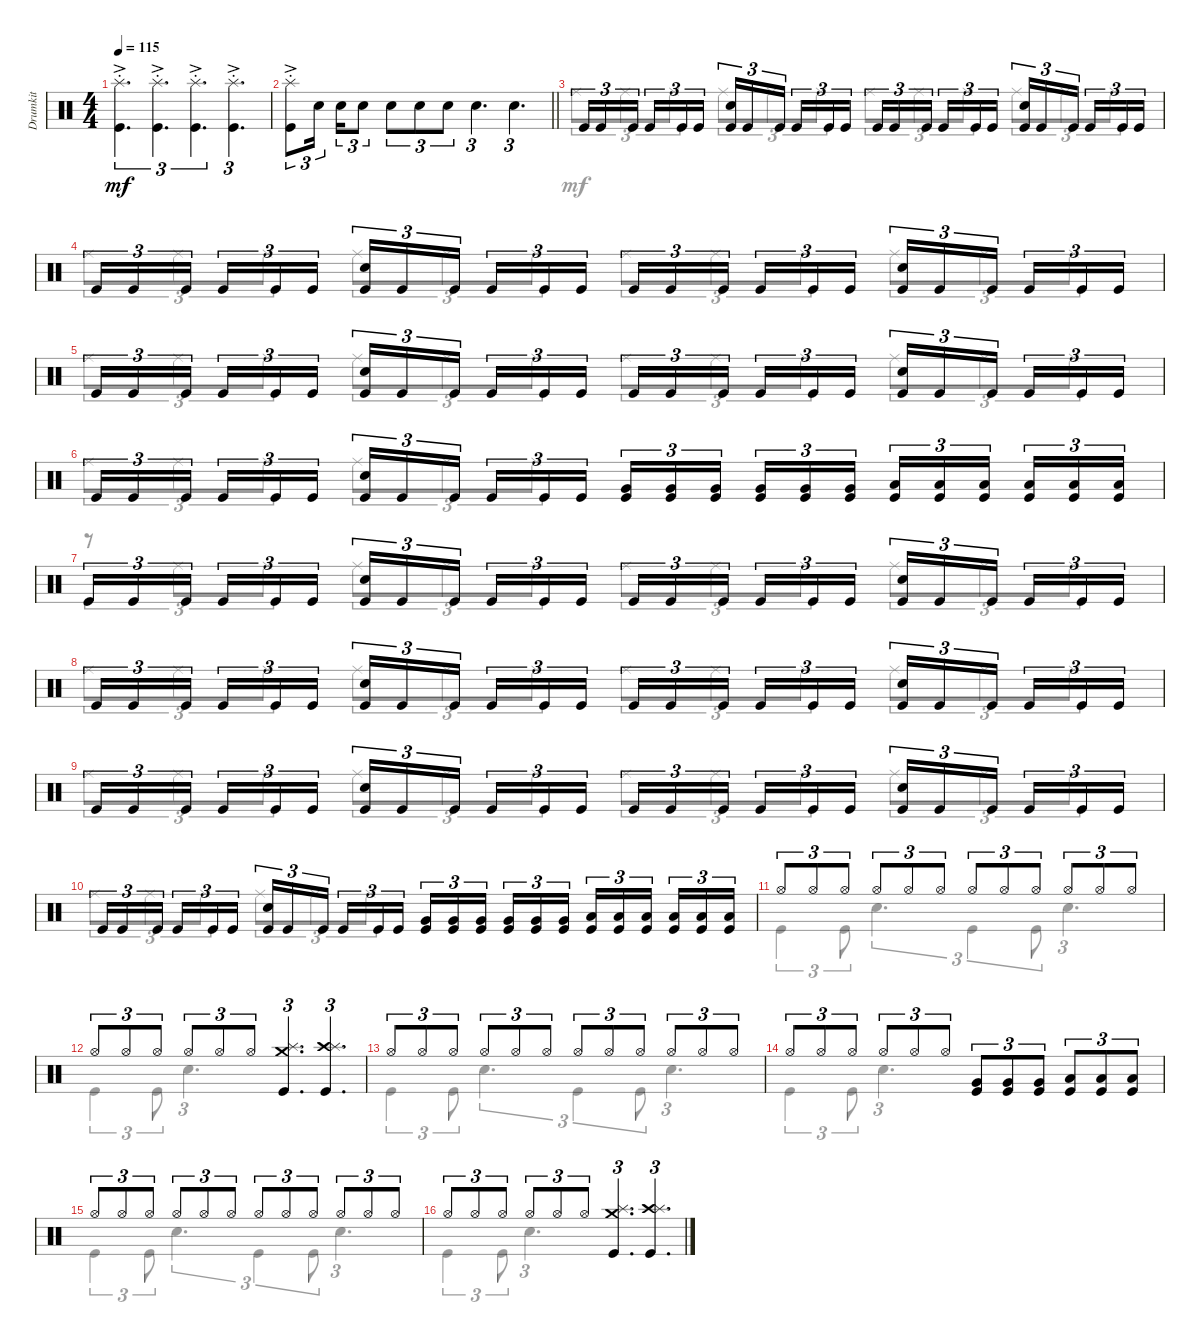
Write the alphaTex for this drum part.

\track ("Drumkit" "Drumkit") {instrument percussion}
\staff {score}
\articulation defaults
\voice
\ts (4 4)
\tempo 115
\clef neutral
\ks c
("Splash (hit)"{ac st} "Kick (hit)").4{d tu (3 2) dy mf} ("Splash (hit)"{ac st} "Kick (hit)").4{d tu (3 2)} ("Splash (hit)"{ac st} "Kick (hit)").4{d tu (3 2)} ("Splash (hit)"{ac st} "Kick (hit)").4{d tu (3 2)} |
\barLineRight lightlight
("Splash (hit)"{ac st} "Kick (hit)").8{tu (3 2)} "Snare (hit) 2".16{tu (3 2)} "Snare (hit) 2".16{tu (3 2)} "Snare (hit) 2".8{tu (3 2)} "Snare (hit) 2".8{tu (3 2)} "Snare (hit) 2".8{tu (3 2)} "Snare (hit) 2".8{tu (3 2)} "Snare (hit) 2".4{d tu (3 2)} "Snare (hit) 2".4{d tu (3 2)} |
"Kick (hit)".16{tu (3 2)} "Kick (hit)".16{tu (3 2)} "Kick (hit)".16{tu (3 2)} "Kick (hit)".16{tu (3 2)} "Kick (hit)".16{tu (3 2)} "Kick (hit)".16{tu (3 2)} ("Kick (hit)" "Snare (hit) 2").16{tu (3 2)} "Kick (hit)".16{tu (3 2)} "Kick (hit)".16{tu (3 2)} "Kick (hit)".16{tu (3 2)} "Kick (hit)".16{tu (3 2)} "Kick (hit)".16{tu (3 2)} "Kick (hit)".16{tu (3 2)} "Kick (hit)".16{tu (3 2)} "Kick (hit)".16{tu (3 2)} "Kick (hit)".16{tu (3 2)} "Kick (hit)".16{tu (3 2)} "Kick (hit)".16{tu (3 2)} ("Kick (hit)" "Snare (hit) 2").16{tu (3 2)} "Kick (hit)".16{tu (3 2)} "Kick (hit)".16{tu (3 2)} "Kick (hit)".16{tu (3 2)} "Kick (hit)".16{tu (3 2)} "Kick (hit)".16{tu (3 2)} |
"Kick (hit)".16{tu (3 2)} "Kick (hit)".16{tu (3 2)} "Kick (hit)".16{tu (3 2)} "Kick (hit)".16{tu (3 2)} "Kick (hit)".16{tu (3 2)} "Kick (hit)".16{tu (3 2)} ("Kick (hit)" "Snare (hit) 2").16{tu (3 2)} "Kick (hit)".16{tu (3 2)} "Kick (hit)".16{tu (3 2)} "Kick (hit)".16{tu (3 2)} "Kick (hit)".16{tu (3 2)} "Kick (hit)".16{tu (3 2)} "Kick (hit)".16{tu (3 2)} "Kick (hit)".16{tu (3 2)} "Kick (hit)".16{tu (3 2)} "Kick (hit)".16{tu (3 2)} "Kick (hit)".16{tu (3 2)} "Kick (hit)".16{tu (3 2)} ("Kick (hit)" "Snare (hit) 2").16{tu (3 2)} "Kick (hit)".16{tu (3 2)} "Kick (hit)".16{tu (3 2)} "Kick (hit)".16{tu (3 2)} "Kick (hit)".16{tu (3 2)} "Kick (hit)".16{tu (3 2)} |
"Kick (hit)".16{tu (3 2)} "Kick (hit)".16{tu (3 2)} "Kick (hit)".16{tu (3 2)} "Kick (hit)".16{tu (3 2)} "Kick (hit)".16{tu (3 2)} "Kick (hit)".16{tu (3 2)} ("Kick (hit)" "Snare (hit) 2").16{tu (3 2)} "Kick (hit)".16{tu (3 2)} "Kick (hit)".16{tu (3 2)} "Kick (hit)".16{tu (3 2)} "Kick (hit)".16{tu (3 2)} "Kick (hit)".16{tu (3 2)} "Kick (hit)".16{tu (3 2)} "Kick (hit)".16{tu (3 2)} "Kick (hit)".16{tu (3 2)} "Kick (hit)".16{tu (3 2)} "Kick (hit)".16{tu (3 2)} "Kick (hit)".16{tu (3 2)} ("Kick (hit)" "Snare (hit) 2").16{tu (3 2)} "Kick (hit)".16{tu (3 2)} "Kick (hit)".16{tu (3 2)} "Kick (hit)".16{tu (3 2)} "Kick (hit)".16{tu (3 2)} "Kick (hit)".16{tu (3 2)} |
"Kick (hit)".16{tu (3 2)} "Kick (hit)".16{tu (3 2)} "Kick (hit)".16{tu (3 2)} "Kick (hit)".16{tu (3 2)} "Kick (hit)".16{tu (3 2)} "Kick (hit)".16{tu (3 2)} ("Kick (hit)" "Snare (hit) 2").16{tu (3 2)} "Kick (hit)".16{tu (3 2)} "Kick (hit)".16{tu (3 2)} "Kick (hit)".16{tu (3 2)} "Kick (hit)".16{tu (3 2)} "Kick (hit)".16{tu (3 2)} ("Kick (hit)" "Very Low Tom (hit)").16{tu (3 2)} ("Kick (hit)" "Very Low Tom (hit)").16{tu (3 2)} ("Kick (hit)" "Very Low Tom (hit)").16{tu (3 2)} ("Kick (hit)" "Very Low Tom (hit)").16{tu (3 2)} ("Kick (hit)" "Very Low Tom (hit)").16{tu (3 2)} ("Kick (hit)" "Very Low Tom (hit)").16{tu (3 2)} ("Kick (hit)" "Low Tom (hit)").16{tu (3 2)} ("Kick (hit)" "Low Tom (hit)").16{tu (3 2)} ("Kick (hit)" "Low Tom (hit)").16{tu (3 2)} ("Kick (hit)" "Low Tom (hit)").16{tu (3 2)} ("Kick (hit)" "Low Tom (hit)").16{tu (3 2)} ("Kick (hit)" "Low Tom (hit)").16{tu (3 2)} |
"Kick (hit)".16{tu (3 2)} "Kick (hit)".16{tu (3 2)} "Kick (hit)".16{tu (3 2)} "Kick (hit)".16{tu (3 2)} "Kick (hit)".16{tu (3 2)} "Kick (hit)".16{tu (3 2)} ("Kick (hit)" "Snare (hit) 2").16{tu (3 2)} "Kick (hit)".16{tu (3 2)} "Kick (hit)".16{tu (3 2)} "Kick (hit)".16{tu (3 2)} "Kick (hit)".16{tu (3 2)} "Kick (hit)".16{tu (3 2)} "Kick (hit)".16{tu (3 2)} "Kick (hit)".16{tu (3 2)} "Kick (hit)".16{tu (3 2)} "Kick (hit)".16{tu (3 2)} "Kick (hit)".16{tu (3 2)} "Kick (hit)".16{tu (3 2)} ("Kick (hit)" "Snare (hit) 2").16{tu (3 2)} "Kick (hit)".16{tu (3 2)} "Kick (hit)".16{tu (3 2)} "Kick (hit)".16{tu (3 2)} "Kick (hit)".16{tu (3 2)} "Kick (hit)".16{tu (3 2)} |
"Kick (hit)".16{tu (3 2)} "Kick (hit)".16{tu (3 2)} "Kick (hit)".16{tu (3 2)} "Kick (hit)".16{tu (3 2)} "Kick (hit)".16{tu (3 2)} "Kick (hit)".16{tu (3 2)} ("Kick (hit)" "Snare (hit) 2").16{tu (3 2)} "Kick (hit)".16{tu (3 2)} "Kick (hit)".16{tu (3 2)} "Kick (hit)".16{tu (3 2)} "Kick (hit)".16{tu (3 2)} "Kick (hit)".16{tu (3 2)} "Kick (hit)".16{tu (3 2)} "Kick (hit)".16{tu (3 2)} "Kick (hit)".16{tu (3 2)} "Kick (hit)".16{tu (3 2)} "Kick (hit)".16{tu (3 2)} "Kick (hit)".16{tu (3 2)} ("Kick (hit)" "Snare (hit) 2").16{tu (3 2)} "Kick (hit)".16{tu (3 2)} "Kick (hit)".16{tu (3 2)} "Kick (hit)".16{tu (3 2)} "Kick (hit)".16{tu (3 2)} "Kick (hit)".16{tu (3 2)} |
"Kick (hit)".16{tu (3 2)} "Kick (hit)".16{tu (3 2)} "Kick (hit)".16{tu (3 2)} "Kick (hit)".16{tu (3 2)} "Kick (hit)".16{tu (3 2)} "Kick (hit)".16{tu (3 2)} ("Kick (hit)" "Snare (hit) 2").16{tu (3 2)} "Kick (hit)".16{tu (3 2)} "Kick (hit)".16{tu (3 2)} "Kick (hit)".16{tu (3 2)} "Kick (hit)".16{tu (3 2)} "Kick (hit)".16{tu (3 2)} "Kick (hit)".16{tu (3 2)} "Kick (hit)".16{tu (3 2)} "Kick (hit)".16{tu (3 2)} "Kick (hit)".16{tu (3 2)} "Kick (hit)".16{tu (3 2)} "Kick (hit)".16{tu (3 2)} ("Kick (hit)" "Snare (hit) 2").16{tu (3 2)} "Kick (hit)".16{tu (3 2)} "Kick (hit)".16{tu (3 2)} "Kick (hit)".16{tu (3 2)} "Kick (hit)".16{tu (3 2)} "Kick (hit)".16{tu (3 2)} |
"Kick (hit)".16{tu (3 2)} "Kick (hit)".16{tu (3 2)} "Kick (hit)".16{tu (3 2)} "Kick (hit)".16{tu (3 2)} "Kick (hit)".16{tu (3 2)} "Kick (hit)".16{tu (3 2)} ("Kick (hit)" "Snare (hit) 2").16{tu (3 2)} "Kick (hit)".16{tu (3 2)} "Kick (hit)".16{tu (3 2)} "Kick (hit)".16{tu (3 2)} "Kick (hit)".16{tu (3 2)} "Kick (hit)".16{tu (3 2)} ("Kick (hit)" "Very Low Tom (hit)").16{tu (3 2)} ("Kick (hit)" "Very Low Tom (hit)").16{tu (3 2)} ("Kick (hit)" "Very Low Tom (hit)").16{tu (3 2)} ("Kick (hit)" "Very Low Tom (hit)").16{tu (3 2)} ("Kick (hit)" "Very Low Tom (hit)").16{tu (3 2)} ("Kick (hit)" "Very Low Tom (hit)").16{tu (3 2)} ("Kick (hit)" "Low Tom (hit)").16{tu (3 2)} ("Kick (hit)" "Low Tom (hit)").16{tu (3 2)} ("Kick (hit)" "Low Tom (hit)").16{tu (3 2)} ("Kick (hit)" "Low Tom (hit)").16{tu (3 2)} ("Kick (hit)" "Low Tom (hit)").16{tu (3 2)} ("Kick (hit)" "Low Tom (hit)").16{tu (3 2)} |
"Hi-Hat (open)".8{tu (3 2)} "Hi-Hat (open)".8{tu (3 2)} "Hi-Hat (open)".8{tu (3 2)} "Hi-Hat (open)".8{tu (3 2)} "Hi-Hat (open)".8{tu (3 2)} "Hi-Hat (open)".8{tu (3 2)} "Hi-Hat (open)".8{tu (3 2)} "Hi-Hat (open)".8{tu (3 2)} "Hi-Hat (open)".8{tu (3 2)} "Hi-Hat (open)".8{tu (3 2)} "Hi-Hat (open)".8{tu (3 2)} "Hi-Hat (open)".8{tu (3 2)} |
"Hi-Hat (open)".8{tu (3 2)} "Hi-Hat (open)".8{tu (3 2)} "Hi-Hat (open)".8{tu (3 2)} "Hi-Hat (open)".8{tu (3 2)} "Hi-Hat (open)".8{tu (3 2)} "Hi-Hat (open)".8{tu (3 2)} ("Kick (hit)" "Crash medium (hit)" "Splash (hit)").4{d tu (3 2)} ("Kick (hit)" "Crash high (hit)" "Splash (hit)").4{d tu (3 2)} |
"Hi-Hat (open)".8{tu (3 2)} "Hi-Hat (open)".8{tu (3 2)} "Hi-Hat (open)".8{tu (3 2)} "Hi-Hat (open)".8{tu (3 2)} "Hi-Hat (open)".8{tu (3 2)} "Hi-Hat (open)".8{tu (3 2)} "Hi-Hat (open)".8{tu (3 2)} "Hi-Hat (open)".8{tu (3 2)} "Hi-Hat (open)".8{tu (3 2)} "Hi-Hat (open)".8{tu (3 2)} "Hi-Hat (open)".8{tu (3 2)} "Hi-Hat (open)".8{tu (3 2)} |
"Hi-Hat (open)".8{tu (3 2)} "Hi-Hat (open)".8{tu (3 2)} "Hi-Hat (open)".8{tu (3 2)} "Hi-Hat (open)".8{tu (3 2)} "Hi-Hat (open)".8{tu (3 2)} "Hi-Hat (open)".8{tu (3 2)} ("Kick (hit)" "Very Low Tom (hit)").8{tu (3 2)} ("Kick (hit)" "Very Low Tom (hit)").8{tu (3 2)} ("Kick (hit)" "Very Low Tom (hit)").8{tu (3 2)} ("Kick (hit)" "Low Tom (hit)").8{tu (3 2)} ("Kick (hit)" "Low Tom (hit)").8{tu (3 2)} ("Kick (hit)" "Low Tom (hit)").8{tu (3 2)} |
"Hi-Hat (open)".8{tu (3 2)} "Hi-Hat (open)".8{tu (3 2)} "Hi-Hat (open)".8{tu (3 2)} "Hi-Hat (open)".8{tu (3 2)} "Hi-Hat (open)".8{tu (3 2)} "Hi-Hat (open)".8{tu (3 2)} "Hi-Hat (open)".8{tu (3 2)} "Hi-Hat (open)".8{tu (3 2)} "Hi-Hat (open)".8{tu (3 2)} "Hi-Hat (open)".8{tu (3 2)} "Hi-Hat (open)".8{tu (3 2)} "Hi-Hat (open)".8{tu (3 2)} |
"Hi-Hat (open)".8{tu (3 2)} "Hi-Hat (open)".8{tu (3 2)} "Hi-Hat (open)".8{tu (3 2)} "Hi-Hat (open)".8{tu (3 2)} "Hi-Hat (open)".8{tu (3 2)} "Hi-Hat (open)".8{tu (3 2)} ("Kick (hit)" "Crash medium (hit)" "Splash (hit)").4{d tu (3 2)} ("Kick (hit)" "Crash high (hit)" "Splash (hit)").4{d tu (3 2)}
\voice
\clef neutral
\ottava regular
\simile none
\ks c
|
\barLineRight lightlight
|
"Ride (middle)".8{tu (3 2)} "Ride (middle)".8{tu (3 2)} "Ride (middle)".8{tu (3 2)} "Ride (middle)".8{tu (3 2)} "Ride (middle)".8{tu (3 2)} "Ride (middle)".8{tu (3 2)} "Ride (middle)".8{tu (3 2)} "Ride (middle)".8{tu (3 2)} "Ride (middle)".8{tu (3 2)} "Ride (middle)".8{tu (3 2)} "Ride (middle)".8{tu (3 2)} "Ride (middle)".8{tu (3 2)} |
"Ride (middle)".8{tu (3 2)} "Ride (middle)".8{tu (3 2)} "Ride (middle)".8{tu (3 2)} "Ride (middle)".8{tu (3 2)} "Ride (middle)".8{tu (3 2)} "Ride (middle)".8{tu (3 2)} "Ride (middle)".8{tu (3 2)} "Ride (middle)".8{tu (3 2)} "Ride (middle)".8{tu (3 2)} "Ride (middle)".8{tu (3 2)} "Ride (middle)".8{tu (3 2)} "Ride (middle)".8{tu (3 2)} |
"Ride (middle)".8{tu (3 2)} "Ride (middle)".8{tu (3 2)} "Ride (middle)".8{tu (3 2)} "Ride (middle)".8{tu (3 2)} "Ride (middle)".8{tu (3 2)} "Ride (middle)".8{tu (3 2)} "Ride (middle)".8{tu (3 2)} "Ride (middle)".8{tu (3 2)} "Ride (middle)".8{tu (3 2)} "Ride (middle)".8{tu (3 2)} "Ride (middle)".8{tu (3 2)} "Ride (middle)".8{tu (3 2)} |
"Ride (middle)".8{tu (3 2)} "Ride (middle)".8{tu (3 2)} "Ride (middle)".8{tu (3 2)} "Ride (middle)".8{tu (3 2)} "Ride (middle)".8{tu (3 2)} "Ride (middle)".8{tu (3 2)} |
r.8{tu (3 2)} "Ride (middle)".8{tu (3 2)} "Ride (middle)".8{tu (3 2)} "Ride (middle)".8{tu (3 2)} "Ride (middle)".8{tu (3 2)} "Ride (middle)".8{tu (3 2)} "Ride (middle)".8{tu (3 2)} "Ride (middle)".8{tu (3 2)} "Ride (middle)".8{tu (3 2)} "Ride (middle)".8{tu (3 2)} "Ride (middle)".8{tu (3 2)} "Ride (middle)".8{tu (3 2)} |
"Ride (middle)".8{tu (3 2)} "Ride (middle)".8{tu (3 2)} "Ride (middle)".8{tu (3 2)} "Ride (middle)".8{tu (3 2)} "Ride (middle)".8{tu (3 2)} "Ride (middle)".8{tu (3 2)} "Ride (middle)".8{tu (3 2)} "Ride (middle)".8{tu (3 2)} "Ride (middle)".8{tu (3 2)} "Ride (middle)".8{tu (3 2)} "Ride (middle)".8{tu (3 2)} "Ride (middle)".8{tu (3 2)} |
"Ride (middle)".8{tu (3 2)} "Ride (middle)".8{tu (3 2)} "Ride (middle)".8{tu (3 2)} "Ride (middle)".8{tu (3 2)} "Ride (middle)".8{tu (3 2)} "Ride (middle)".8{tu (3 2)} "Ride (middle)".8{tu (3 2)} "Ride (middle)".8{tu (3 2)} "Ride (middle)".8{tu (3 2)} "Ride (middle)".8{tu (3 2)} "Ride (middle)".8{tu (3 2)} "Ride (middle)".8{tu (3 2)} |
"Ride (middle)".8{tu (3 2)} "Ride (middle)".8{tu (3 2)} "Ride (middle)".8{tu (3 2)} "Ride (middle)".8{tu (3 2)} "Ride (middle)".8{tu (3 2)} "Ride (middle)".8{tu (3 2)} |
"Kick (hit)".4{tu (3 2)} "Kick (hit)".8{tu (3 2)} "Snare (hit) 2".4{d tu (3 2)} "Kick (hit)".4{tu (3 2)} "Kick (hit)".8{tu (3 2)} "Snare (hit) 2".4{d tu (3 2)} |
"Kick (hit)".4{tu (3 2)} "Kick (hit)".8{tu (3 2)} "Snare (hit) 2".4{d tu (3 2)} |
"Kick (hit)".4{tu (3 2)} "Kick (hit)".8{tu (3 2)} "Snare (hit) 2".4{d tu (3 2)} "Kick (hit)".4{tu (3 2)} "Kick (hit)".8{tu (3 2)} "Snare (hit) 2".4{d tu (3 2)} |
"Kick (hit)".4{tu (3 2)} "Kick (hit)".8{tu (3 2)} "Snare (hit) 2".4{d tu (3 2)} |
"Kick (hit)".4{tu (3 2)} "Kick (hit)".8{tu (3 2)} "Snare (hit) 2".4{d tu (3 2)} "Kick (hit)".4{tu (3 2)} "Kick (hit)".8{tu (3 2)} "Snare (hit) 2".4{d tu (3 2)} |
"Kick (hit)".4{tu (3 2)} "Kick (hit)".8{tu (3 2)} "Snare (hit) 2".4{d tu (3 2)}
